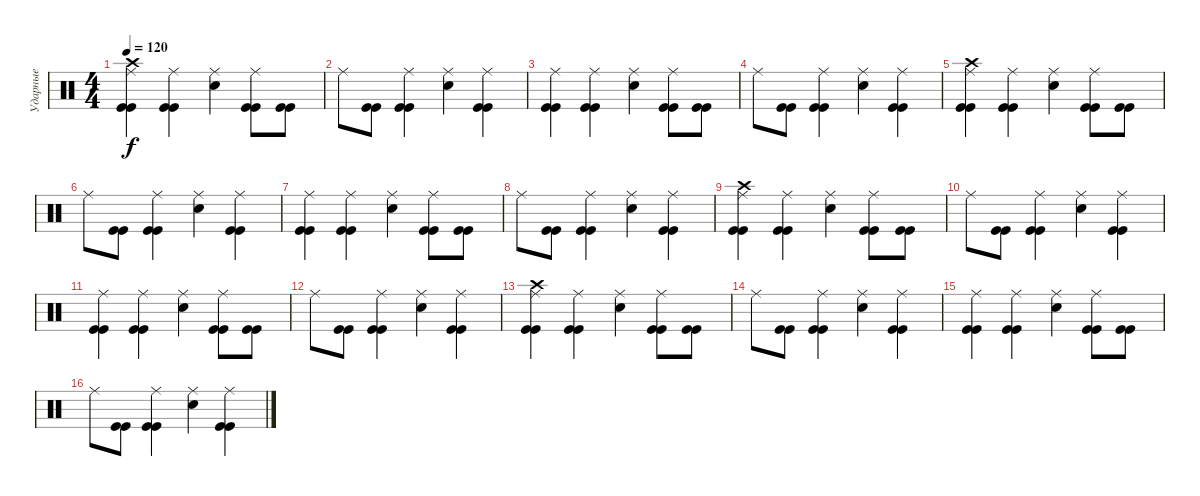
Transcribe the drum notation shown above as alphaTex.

\track ("Ударные" "Ударные") {instrument percussion}
\staff {score}
\articulation defaults
\ts (4 4)
\tempo 120
\clef neutral
\ks c
("Crash high (hit)" "Ride (middle)" "Kick (hit)" "Kick (hit)").4{dy f} ("Ride (middle)" "Kick (hit)" "Kick (hit)").4 ("Snare (hit) 2" "Ride (middle)").4 ("Ride (middle)" "Kick (hit)" "Kick (hit)").8 ("Kick (hit)" "Kick (hit)").8 |
"Ride (middle)".8 ("Kick (hit)" "Kick (hit)").8 ("Ride (middle)" "Kick (hit)" "Kick (hit)").4 ("Snare (hit) 2" "Ride (middle)").4 ("Ride (middle)" "Kick (hit)" "Kick (hit)").4 |
("Ride (middle)" "Kick (hit)" "Kick (hit)").4 ("Ride (middle)" "Kick (hit)" "Kick (hit)").4 ("Snare (hit) 2" "Ride (middle)").4 ("Ride (middle)" "Kick (hit)" "Kick (hit)").8 ("Kick (hit)" "Kick (hit)").8 |
"Ride (middle)".8 ("Kick (hit)" "Kick (hit)").8 ("Ride (middle)" "Kick (hit)" "Kick (hit)").4 ("Snare (hit) 2" "Ride (middle)").4 ("Ride (middle)" "Kick (hit)" "Kick (hit)").4 |
("Crash high (hit)" "Ride (middle)" "Kick (hit)" "Kick (hit)").4 ("Ride (middle)" "Kick (hit)" "Kick (hit)").4 ("Snare (hit) 2" "Ride (middle)").4 ("Ride (middle)" "Kick (hit)" "Kick (hit)").8 ("Kick (hit)" "Kick (hit)").8 |
"Ride (middle)".8 ("Kick (hit)" "Kick (hit)").8 ("Ride (middle)" "Kick (hit)" "Kick (hit)").4 ("Snare (hit) 2" "Ride (middle)").4 ("Ride (middle)" "Kick (hit)" "Kick (hit)").4 |
("Ride (middle)" "Kick (hit)" "Kick (hit)").4 ("Ride (middle)" "Kick (hit)" "Kick (hit)").4 ("Snare (hit) 2" "Ride (middle)").4 ("Ride (middle)" "Kick (hit)" "Kick (hit)").8 ("Kick (hit)" "Kick (hit)").8 |
"Ride (middle)".8 ("Kick (hit)" "Kick (hit)").8 ("Ride (middle)" "Kick (hit)" "Kick (hit)").4 ("Snare (hit) 2" "Ride (middle)").4 ("Ride (middle)" "Kick (hit)" "Kick (hit)").4 |
("Crash high (hit)" "Ride (middle)" "Kick (hit)" "Kick (hit)").4 ("Ride (middle)" "Kick (hit)" "Kick (hit)").4 ("Snare (hit) 2" "Ride (middle)").4 ("Ride (middle)" "Kick (hit)" "Kick (hit)").8 ("Kick (hit)" "Kick (hit)").8 |
"Ride (middle)".8 ("Kick (hit)" "Kick (hit)").8 ("Ride (middle)" "Kick (hit)" "Kick (hit)").4 ("Snare (hit) 2" "Ride (middle)").4 ("Ride (middle)" "Kick (hit)" "Kick (hit)").4 |
("Ride (middle)" "Kick (hit)" "Kick (hit)").4 ("Ride (middle)" "Kick (hit)" "Kick (hit)").4 ("Snare (hit) 2" "Ride (middle)").4 ("Ride (middle)" "Kick (hit)" "Kick (hit)").8 ("Kick (hit)" "Kick (hit)").8 |
"Ride (middle)".8 ("Kick (hit)" "Kick (hit)").8 ("Ride (middle)" "Kick (hit)" "Kick (hit)").4 ("Snare (hit) 2" "Ride (middle)").4 ("Ride (middle)" "Kick (hit)" "Kick (hit)").4 |
("Crash high (hit)" "Ride (middle)" "Kick (hit)" "Kick (hit)").4 ("Ride (middle)" "Kick (hit)" "Kick (hit)").4 ("Snare (hit) 2" "Ride (middle)").4 ("Ride (middle)" "Kick (hit)" "Kick (hit)").8 ("Kick (hit)" "Kick (hit)").8 |
"Ride (middle)".8 ("Kick (hit)" "Kick (hit)").8 ("Ride (middle)" "Kick (hit)" "Kick (hit)").4 ("Snare (hit) 2" "Ride (middle)").4 ("Ride (middle)" "Kick (hit)" "Kick (hit)").4 |
("Ride (middle)" "Kick (hit)" "Kick (hit)").4 ("Ride (middle)" "Kick (hit)" "Kick (hit)").4 ("Snare (hit) 2" "Ride (middle)").4 ("Ride (middle)" "Kick (hit)" "Kick (hit)").8 ("Kick (hit)" "Kick (hit)").8 |
"Ride (middle)".8 ("Kick (hit)" "Kick (hit)").8 ("Ride (middle)" "Kick (hit)" "Kick (hit)").4 ("Snare (hit) 2" "Ride (middle)").4 ("Ride (middle)" "Kick (hit)" "Kick (hit)").4
